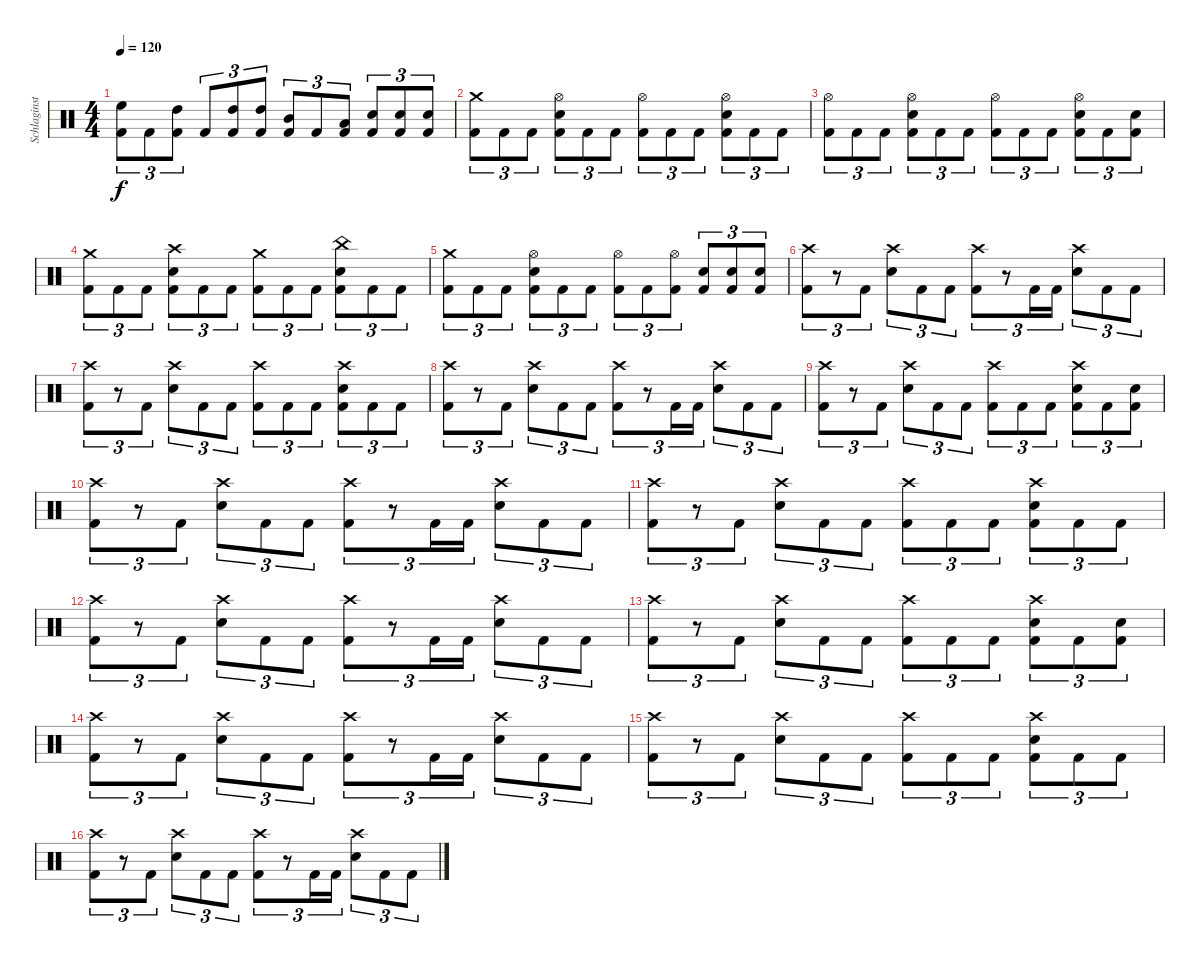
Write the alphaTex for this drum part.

\track ("Schlaginstrumente - Auswahl" "Schlaginst") {instrument percussion}
\staff {score}
\articulation defaults
\ts (4 4)
\tempo 120
\clef neutral
\ks c
("High Floor Tom (hit)" "Kick (hit) 2").8{tu (3 2) dy f} "Kick (hit) 2".8{tu (3 2)} ("High Tom (hit)" "Kick (hit) 2").8{tu (3 2)} "Kick (hit) 2".8{tu (3 2)} ("High Tom (hit)" "Kick (hit) 2").8{tu (3 2)} ("High Tom (hit)" "Kick (hit) 2").8{tu (3 2)} ("Mid Tom (hit)" "Kick (hit) 2").8{tu (3 2)} "Kick (hit) 2".8{tu (3 2)} ("Low Tom (hit)" "Kick (hit) 2").8{tu (3 2)} ("Electric Snare (hit)" "Kick (hit) 2").8{tu (3 2)} ("Electric Snare (hit)" "Kick (hit) 2").8{tu (3 2)} ("Electric Snare (hit)" "Kick (hit) 2").8{tu (3 2)} |
("Crash medium (hit)" "Kick (hit) 2").8{tu (3 2)} "Kick (hit) 2".8{tu (3 2)} "Kick (hit) 2".8{tu (3 2)} ("Hi-Hat (open)" "Electric Snare (hit)" "Kick (hit) 2").8{tu (3 2)} "Kick (hit) 2".8{tu (3 2)} "Kick (hit) 2".8{tu (3 2)} ("Hi-Hat (open)" "Kick (hit) 2").8{tu (3 2)} "Kick (hit) 2".8{tu (3 2)} "Kick (hit) 2".8{tu (3 2)} ("Hi-Hat (open)" "Electric Snare (hit)" "Kick (hit) 2").8{tu (3 2)} "Kick (hit) 2".8{tu (3 2)} "Kick (hit) 2".8{tu (3 2)} |
("Hi-Hat (open)" "Kick (hit) 2").8{tu (3 2)} "Kick (hit) 2".8{tu (3 2)} "Kick (hit) 2".8{tu (3 2)} ("Hi-Hat (open)" "Electric Snare (hit)" "Kick (hit) 2").8{tu (3 2)} "Kick (hit) 2".8{tu (3 2)} "Kick (hit) 2".8{tu (3 2)} ("Hi-Hat (open)" "Kick (hit) 2").8{tu (3 2)} "Kick (hit) 2".8{tu (3 2)} "Kick (hit) 2".8{tu (3 2)} ("Hi-Hat (open)" "Electric Snare (hit)" "Kick (hit) 2").8{tu (3 2)} "Kick (hit) 2".8{tu (3 2)} ("Electric Snare (hit)" "Kick (hit) 2").8{tu (3 2)} |
("Crash medium (hit)" "Kick (hit) 2").8{tu (3 2)} "Kick (hit) 2".8{tu (3 2)} "Kick (hit) 2".8{tu (3 2)} ("Crash high (hit)" "Electric Snare (hit)" "Kick (hit) 2").8{tu (3 2)} "Kick (hit) 2".8{tu (3 2)} "Kick (hit) 2".8{tu (3 2)} ("Crash medium (hit)" "Kick (hit) 2").8{tu (3 2)} "Kick (hit) 2".8{tu (3 2)} "Kick (hit) 2".8{tu (3 2)} ("China (hit)" "Electric Snare (hit)" "Kick (hit) 2").8{tu (3 2)} "Kick (hit) 2".8{tu (3 2)} "Kick (hit) 2".8{tu (3 2)} |
("Crash medium (hit)" "Kick (hit) 2").8{tu (3 2)} "Kick (hit) 2".8{tu (3 2)} "Kick (hit) 2".8{tu (3 2)} ("Hi-Hat (open)" "Electric Snare (hit)" "Kick (hit) 2").8{tu (3 2)} "Kick (hit) 2".8{tu (3 2)} "Kick (hit) 2".8{tu (3 2)} ("Hi-Hat (open)" "Kick (hit) 2").8{tu (3 2)} "Kick (hit) 2".8{tu (3 2)} ("Hi-Hat (open)" "Kick (hit) 2").8{tu (3 2)} ("Electric Snare (hit)" "Kick (hit) 2").8{tu (3 2)} ("Electric Snare (hit)" "Kick (hit) 2").8{tu (3 2)} ("Electric Snare (hit)" "Kick (hit) 2").8{tu (3 2)} |
("Crash high (hit)" "Kick (hit) 2").8{tu (3 2)} r.8{tu (3 2)} "Kick (hit) 2".8{tu (3 2)} ("Crash high (hit)" "Electric Snare (hit)").8{tu (3 2)} "Kick (hit) 2".8{tu (3 2)} "Kick (hit) 2".8{tu (3 2)} ("Crash high (hit)" "Kick (hit) 2").8{tu (3 2)} r.8{tu (3 2)} "Kick (hit) 2".16{tu (3 2)} "Kick (hit) 2".16{tu (3 2)} ("Crash high (hit)" "Electric Snare (hit)").8{tu (3 2)} "Kick (hit) 2".8{tu (3 2)} "Kick (hit) 2".8{tu (3 2)} |
("Crash high (hit)" "Kick (hit) 2").8{tu (3 2)} r.8{tu (3 2)} "Kick (hit) 2".8{tu (3 2)} ("Crash high (hit)" "Electric Snare (hit)").8{tu (3 2)} "Kick (hit) 2".8{tu (3 2)} "Kick (hit) 2".8{tu (3 2)} ("Crash high (hit)" "Kick (hit) 2").8{tu (3 2)} "Kick (hit) 2".8{tu (3 2)} "Kick (hit) 2".8{tu (3 2)} ("Crash high (hit)" "Electric Snare (hit)" "Kick (hit) 2").8{tu (3 2)} "Kick (hit) 2".8{tu (3 2)} "Kick (hit) 2".8{tu (3 2)} |
("Crash high (hit)" "Kick (hit) 2").8{tu (3 2)} r.8{tu (3 2)} "Kick (hit) 2".8{tu (3 2)} ("Crash high (hit)" "Electric Snare (hit)").8{tu (3 2)} "Kick (hit) 2".8{tu (3 2)} "Kick (hit) 2".8{tu (3 2)} ("Crash high (hit)" "Kick (hit) 2").8{tu (3 2)} r.8{tu (3 2)} "Kick (hit) 2".16{tu (3 2)} "Kick (hit) 2".16{tu (3 2)} ("Crash high (hit)" "Electric Snare (hit)").8{tu (3 2)} "Kick (hit) 2".8{tu (3 2)} "Kick (hit) 2".8{tu (3 2)} |
("Crash high (hit)" "Kick (hit) 2").8{tu (3 2)} r.8{tu (3 2)} "Kick (hit) 2".8{tu (3 2)} ("Crash high (hit)" "Electric Snare (hit)").8{tu (3 2)} "Kick (hit) 2".8{tu (3 2)} "Kick (hit) 2".8{tu (3 2)} ("Crash high (hit)" "Kick (hit) 2").8{tu (3 2)} "Kick (hit) 2".8{tu (3 2)} "Kick (hit) 2".8{tu (3 2)} ("Crash high (hit)" "Electric Snare (hit)" "Kick (hit) 2").8{tu (3 2)} "Kick (hit) 2".8{tu (3 2)} ("Electric Snare (hit)" "Kick (hit) 2").8{tu (3 2)} |
("Crash high (hit)" "Kick (hit) 2").8{tu (3 2)} r.8{tu (3 2)} "Kick (hit) 2".8{tu (3 2)} ("Crash high (hit)" "Electric Snare (hit)").8{tu (3 2)} "Kick (hit) 2".8{tu (3 2)} "Kick (hit) 2".8{tu (3 2)} ("Crash high (hit)" "Kick (hit) 2").8{tu (3 2)} r.8{tu (3 2)} "Kick (hit) 2".16{tu (3 2)} "Kick (hit) 2".16{tu (3 2)} ("Crash high (hit)" "Electric Snare (hit)").8{tu (3 2)} "Kick (hit) 2".8{tu (3 2)} "Kick (hit) 2".8{tu (3 2)} |
("Crash high (hit)" "Kick (hit) 2").8{tu (3 2)} r.8{tu (3 2)} "Kick (hit) 2".8{tu (3 2)} ("Crash high (hit)" "Electric Snare (hit)").8{tu (3 2)} "Kick (hit) 2".8{tu (3 2)} "Kick (hit) 2".8{tu (3 2)} ("Crash high (hit)" "Kick (hit) 2").8{tu (3 2)} "Kick (hit) 2".8{tu (3 2)} "Kick (hit) 2".8{tu (3 2)} ("Crash high (hit)" "Electric Snare (hit)" "Kick (hit) 2").8{tu (3 2)} "Kick (hit) 2".8{tu (3 2)} "Kick (hit) 2".8{tu (3 2)} |
("Crash high (hit)" "Kick (hit) 2").8{tu (3 2)} r.8{tu (3 2)} "Kick (hit) 2".8{tu (3 2)} ("Crash high (hit)" "Electric Snare (hit)").8{tu (3 2)} "Kick (hit) 2".8{tu (3 2)} "Kick (hit) 2".8{tu (3 2)} ("Crash high (hit)" "Kick (hit) 2").8{tu (3 2)} r.8{tu (3 2)} "Kick (hit) 2".16{tu (3 2)} "Kick (hit) 2".16{tu (3 2)} ("Crash high (hit)" "Electric Snare (hit)").8{tu (3 2)} "Kick (hit) 2".8{tu (3 2)} "Kick (hit) 2".8{tu (3 2)} |
("Crash high (hit)" "Kick (hit) 2").8{tu (3 2)} r.8{tu (3 2)} "Kick (hit) 2".8{tu (3 2)} ("Crash high (hit)" "Electric Snare (hit)").8{tu (3 2)} "Kick (hit) 2".8{tu (3 2)} "Kick (hit) 2".8{tu (3 2)} ("Crash high (hit)" "Kick (hit) 2").8{tu (3 2)} "Kick (hit) 2".8{tu (3 2)} "Kick (hit) 2".8{tu (3 2)} ("Crash high (hit)" "Electric Snare (hit)" "Kick (hit) 2").8{tu (3 2)} "Kick (hit) 2".8{tu (3 2)} ("Electric Snare (hit)" "Kick (hit) 2").8{tu (3 2)} |
("Crash high (hit)" "Kick (hit) 2").8{tu (3 2)} r.8{tu (3 2)} "Kick (hit) 2".8{tu (3 2)} ("Crash high (hit)" "Electric Snare (hit)").8{tu (3 2)} "Kick (hit) 2".8{tu (3 2)} "Kick (hit) 2".8{tu (3 2)} ("Crash high (hit)" "Kick (hit) 2").8{tu (3 2)} r.8{tu (3 2)} "Kick (hit) 2".16{tu (3 2)} "Kick (hit) 2".16{tu (3 2)} ("Crash high (hit)" "Electric Snare (hit)").8{tu (3 2)} "Kick (hit) 2".8{tu (3 2)} "Kick (hit) 2".8{tu (3 2)} |
("Crash high (hit)" "Kick (hit) 2").8{tu (3 2)} r.8{tu (3 2)} "Kick (hit) 2".8{tu (3 2)} ("Crash high (hit)" "Electric Snare (hit)").8{tu (3 2)} "Kick (hit) 2".8{tu (3 2)} "Kick (hit) 2".8{tu (3 2)} ("Crash high (hit)" "Kick (hit) 2").8{tu (3 2)} "Kick (hit) 2".8{tu (3 2)} "Kick (hit) 2".8{tu (3 2)} ("Crash high (hit)" "Electric Snare (hit)" "Kick (hit) 2").8{tu (3 2)} "Kick (hit) 2".8{tu (3 2)} "Kick (hit) 2".8{tu (3 2)} |
("Crash high (hit)" "Kick (hit) 2").8{tu (3 2)} r.8{tu (3 2)} "Kick (hit) 2".8{tu (3 2)} ("Crash high (hit)" "Electric Snare (hit)").8{tu (3 2)} "Kick (hit) 2".8{tu (3 2)} "Kick (hit) 2".8{tu (3 2)} ("Crash high (hit)" "Kick (hit) 2").8{tu (3 2)} r.8{tu (3 2)} "Kick (hit) 2".16{tu (3 2)} "Kick (hit) 2".16{tu (3 2)} ("Crash high (hit)" "Electric Snare (hit)").8{tu (3 2)} "Kick (hit) 2".8{tu (3 2)} "Kick (hit) 2".8{tu (3 2)}
